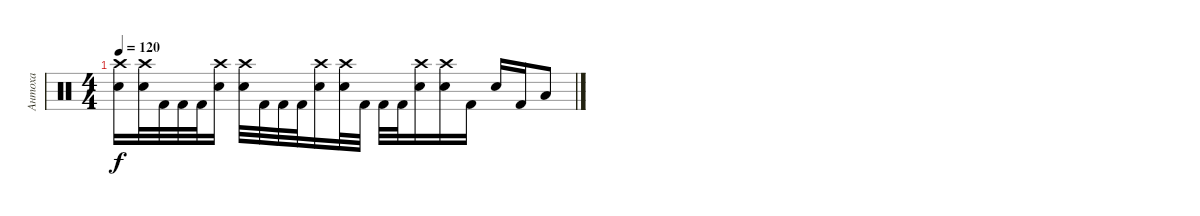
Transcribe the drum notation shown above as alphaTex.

\track ("Антоха" "Антоха") {instrument percussion}
\staff {score}
\articulation defaults
\ts (4 4)
\tempo 120
\clef neutral
\ks c
("Electric Snare (hit)" "Crash high (hit)").16{dy f} ("Electric Snare (hit)" "Crash high (hit)").32 "Kick (hit) 2".32 "Kick (hit) 2".32 "Kick (hit) 2".32 ("Electric Snare (hit)" "Crash high (hit)").16 ("Electric Snare (hit)" "Crash high (hit)").32 "Kick (hit) 2".32 "Kick (hit) 2".32 "Kick (hit) 2".32 ("Electric Snare (hit)" "Crash high (hit)").16 ("Electric Snare (hit)" "Crash high (hit)").32 "Kick (hit) 2".32 "Kick (hit) 2".32 "Kick (hit) 2".32 ("Electric Snare (hit)" "Crash high (hit)").16 ("Electric Snare (hit)" "Crash high (hit)").16 "Kick (hit) 2".16 "Electric Snare (hit)".16 "Kick (hit) 2".16 "Low Floor Tom (hit)".8
